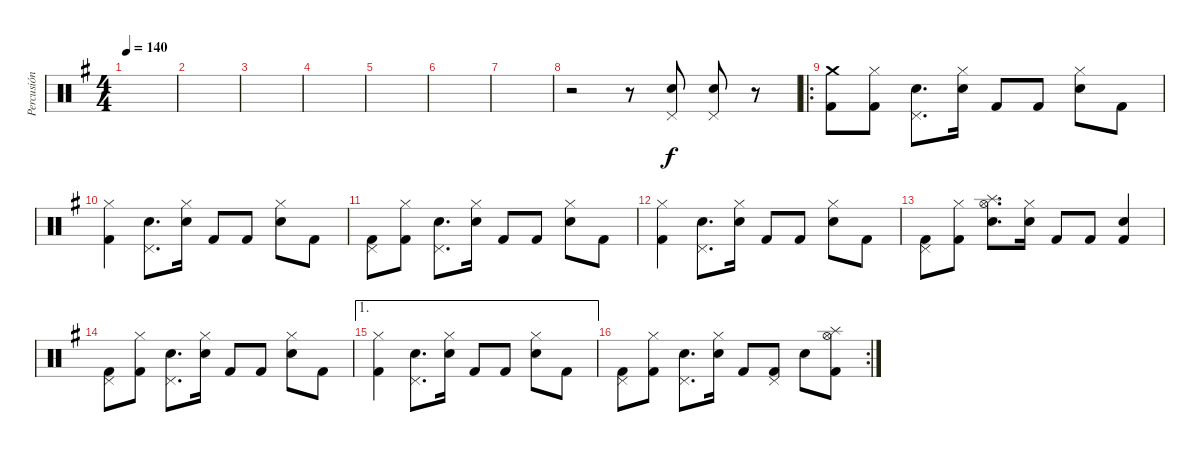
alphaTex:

\track ("Percusión" "Percusión") {instrument percussion}
\staff {score}
\articulation defaults
\ts (4 4)
\tempo 140
\clef neutral
\ks g
|
|
|
|
|
|
|
r.2 r.8 ("Pedal Hi-Hat (hit)" "Snare (hit) 2").8 ("Pedal Hi-Hat (hit)" "Snare (hit) 2").8 r.8 |
\ro
("Crash medium (hit)" "Kick (hit) 2").8 ("Hi-Hat (closed)" "Kick (hit) 2").8 ("Pedal Hi-Hat (hit)" "Snare (hit) 2").8{d} ("Hi-Hat (closed)" "Snare (hit) 2").16 "Kick (hit) 2".8 "Kick (hit) 2".8 ("Hi-Hat (closed)" "Snare (hit) 2").8 "Kick (hit) 2".8 |
("Hi-Hat (closed)" "Kick (hit) 2").4 ("Pedal Hi-Hat (hit)" "Snare (hit) 2").8{d} ("Hi-Hat (closed)" "Snare (hit) 2").16 "Kick (hit) 2".8 "Kick (hit) 2".8 ("Hi-Hat (closed)" "Snare (hit) 2").8 "Kick (hit) 2".8 |
("Pedal Hi-Hat (hit)" "Kick (hit) 2").8 ("Hi-Hat (closed)" "Kick (hit) 2").8 ("Pedal Hi-Hat (hit)" "Snare (hit) 2").8{d} ("Hi-Hat (closed)" "Snare (hit) 2").16 "Kick (hit) 2".8 "Kick (hit) 2".8 ("Hi-Hat (closed)" "Snare (hit) 2").8 "Kick (hit) 2".8 |
("Hi-Hat (closed)" "Kick (hit) 2").4 ("Pedal Hi-Hat (hit)" "Snare (hit) 2").8{d} ("Hi-Hat (closed)" "Snare (hit) 2").16 "Kick (hit) 2".8 "Kick (hit) 2".8 ("Hi-Hat (closed)" "Snare (hit) 2").8 "Kick (hit) 2".8 |
("Pedal Hi-Hat (hit)" "Kick (hit) 2").8 ("Hi-Hat (closed)" "Kick (hit) 2").8 ("Hi-Hat (open)" "Splash (hit)" "Snare (hit) 2").8{d} ("Hi-Hat (closed)" "Snare (hit) 2").16 "Kick (hit) 2".8 "Kick (hit) 2".8 ("Snare (hit) 2" "Kick (hit) 2").4 |
("Pedal Hi-Hat (hit)" "Kick (hit) 2").8 ("Hi-Hat (closed)" "Kick (hit) 2").8 ("Pedal Hi-Hat (hit)" "Snare (hit) 2").8{d} ("Hi-Hat (closed)" "Snare (hit) 2").16 "Kick (hit) 2".8 "Kick (hit) 2".8 ("Hi-Hat (closed)" "Snare (hit) 2").8 "Kick (hit) 2".8 |
\ae 1
("Hi-Hat (closed)" "Kick (hit) 2").4 ("Pedal Hi-Hat (hit)" "Snare (hit) 2").8{d} ("Hi-Hat (closed)" "Snare (hit) 2").16 "Kick (hit) 2".8 "Kick (hit) 2".8 ("Hi-Hat (closed)" "Snare (hit) 2").8 "Kick (hit) 2".8 |
\rc 2
("Pedal Hi-Hat (hit)" "Kick (hit) 2").8 ("Hi-Hat (closed)" "Kick (hit) 2").8 ("Pedal Hi-Hat (hit)" "Snare (hit) 2").8{d} ("Hi-Hat (closed)" "Snare (hit) 2").16 "Kick (hit) 2".8 ("Pedal Hi-Hat (hit)" "Kick (hit) 2").8 "Snare (hit) 2".8 ("Hi-Hat (open)" "Splash (hit)" "Kick (hit) 2").8
